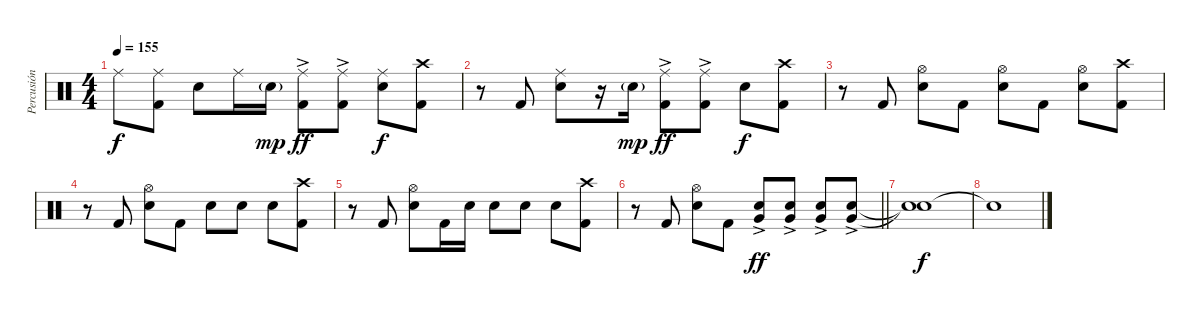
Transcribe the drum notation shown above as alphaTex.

\track ("Percusión" "Percusión") {instrument percussion}
\staff {score}
\articulation defaults
\ts (4 4)
\tempo 155
\clef neutral
\ks c "Ride (middle)".8{dy f}
("Ride (middle)" "Kick (hit) 2").8 "Snare (hit) 2".8 "Ride (middle)".16 "Snare (hit) 2"{g}.16{dy mp} ("Ride (middle)"{ac} "Kick (hit) 2").8{dy ff} ("Ride (middle)"{ac} "Kick (hit) 2").8 ("Ride (middle)" "Snare (hit) 2").8{dy f} ("Crash high (hit)" "Kick (hit) 2").8 |
r.8 "Kick (hit) 2".8 ("Ride (middle)" "Snare (hit) 2").8 r.16 "Snare (hit) 2"{g}.16{dy mp} ("Ride (middle)"{ac} "Kick (hit) 2").8{dy ff} ("Ride (middle)"{ac} "Kick (hit) 2").8 "Snare (hit) 2".8{dy f} ("Crash high (hit)" "Kick (hit) 2").8 |
r.8 "Kick (hit) 2".8 ("Hi-Hat (open)" "Snare (hit) 2").8 "Kick (hit) 2".8 ("Hi-Hat (open)" "Snare (hit) 2").8 "Kick (hit) 2".8 ("Hi-Hat (open)" "Snare (hit) 2").8 ("Crash high (hit)" "Kick (hit) 2").8 |
r.8 "Kick (hit) 2".8 ("Hi-Hat (open)" "Snare (hit) 2").8 "Kick (hit) 2".8 "Snare (hit) 2".8 "Snare (hit) 2".8 "Snare (hit) 2".8 ("Crash high (hit)" "Kick (hit) 2").8 |
r.8 "Kick (hit) 2".8 ("Hi-Hat (open)" "Snare (hit) 2").8 "Kick (hit) 2".16 "Snare (hit) 2".16 "Snare (hit) 2".8 "Snare (hit) 2".8 "Snare (hit) 2".8 ("Crash high (hit)" "Kick (hit) 2").8 |
\barLineRight lightlight
r.8 "Kick (hit) 2".8 ("Hi-Hat (open)" "Snare (hit) 2").8 "Kick (hit) 2".8 ("Snare (hit) 2"{ac} "Very Low Tom (hit)"{ac}).8{dy ff} ("Snare (hit) 2"{ac} "Very Low Tom (hit)"{ac}).8 ("Snare (hit) 2"{ac} "Very Low Tom (hit)"{ac}).8 ("Snare (hit) 2" "Very Low Tom (hit)"{ac}).8 |
("Snare (hit)"{t} "Snare (hit)"{t}).1{dy f} |
"Snare (hit)"{t}.1
